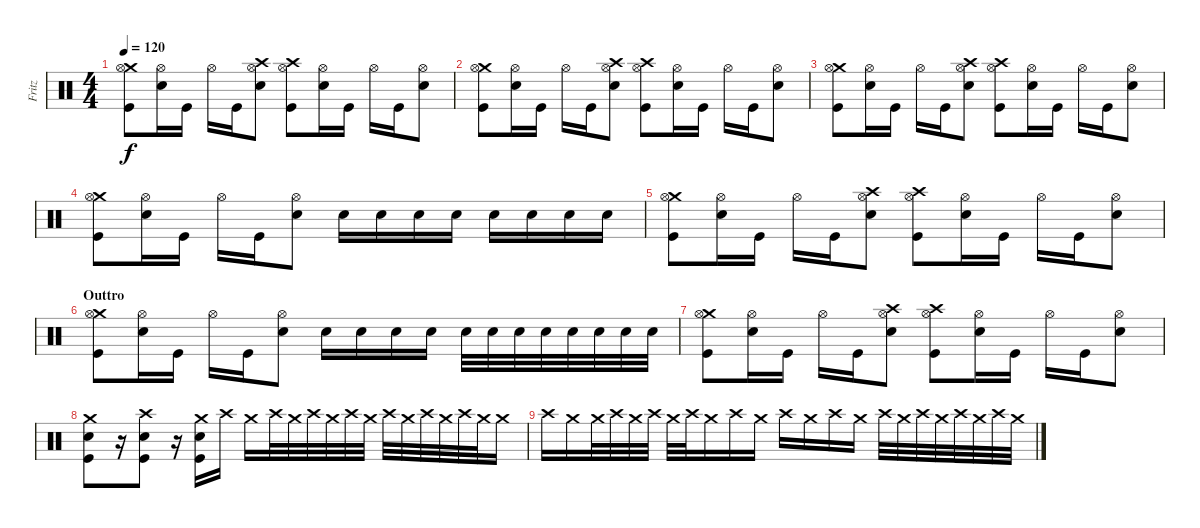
\track ("Fritz" "Fritz") {instrument percussion}
\staff {score}
\articulation defaults
\ts (4 4)
\tempo 120
\clef neutral
\ks c
("Crash medium (hit)" "Hi-Hat (open)" "Kick (hit)").8{dy f} ("Hi-Hat (open)" "Snare (hit) 2").16 "Kick (hit)".16 "Hi-Hat (open)".16 "Kick (hit)".16 ("Crash high (hit)" "Hi-Hat (open)" "Snare (hit) 2").8 ("Crash high (hit)" "Hi-Hat (open)" "Kick (hit)").8 ("Hi-Hat (open)" "Snare (hit) 2").16 "Kick (hit)".16 "Hi-Hat (open)".16 "Kick (hit)".16 ("Hi-Hat (open)" "Snare (hit) 2").8 |
("Crash medium (hit)" "Hi-Hat (open)" "Kick (hit)").8 ("Hi-Hat (open)" "Snare (hit) 2").16 "Kick (hit)".16 "Hi-Hat (open)".16 "Kick (hit)".16 ("Crash high (hit)" "Hi-Hat (open)" "Snare (hit) 2").8 ("Crash high (hit)" "Hi-Hat (open)" "Kick (hit)").8 ("Hi-Hat (open)" "Snare (hit) 2").16 "Kick (hit)".16 "Hi-Hat (open)".16 "Kick (hit)".16 ("Hi-Hat (open)" "Snare (hit) 2").8 |
("Crash medium (hit)" "Hi-Hat (open)" "Kick (hit)").8 ("Hi-Hat (open)" "Snare (hit) 2").16 "Kick (hit)".16 "Hi-Hat (open)".16 "Kick (hit)".16 ("Crash high (hit)" "Hi-Hat (open)" "Snare (hit) 2").8 ("Crash high (hit)" "Hi-Hat (open)" "Kick (hit)").8 ("Hi-Hat (open)" "Snare (hit) 2").16 "Kick (hit)".16 "Hi-Hat (open)".16 "Kick (hit)".16 ("Hi-Hat (open)" "Snare (hit) 2").8 |
("Crash medium (hit)" "Hi-Hat (open)" "Kick (hit)").8 ("Hi-Hat (open)" "Snare (hit) 2").16 "Kick (hit)".16 "Hi-Hat (open)".16 "Kick (hit)".16 ("Hi-Hat (open)" "Snare (hit) 2").8 "Snare (hit) 2".16 "Snare (hit) 2".16 "Snare (hit) 2".16 "Snare (hit) 2".16 "Snare (hit) 2".16 "Snare (hit) 2".16 "Snare (hit) 2".16 "Snare (hit) 2".16 |
("Crash medium (hit)" "Hi-Hat (open)" "Kick (hit)").8 ("Hi-Hat (open)" "Snare (hit) 2").16 "Kick (hit)".16 "Hi-Hat (open)".16 "Kick (hit)".16 ("Crash high (hit)" "Hi-Hat (open)" "Snare (hit) 2").8 ("Crash high (hit)" "Hi-Hat (open)" "Kick (hit)").8 ("Hi-Hat (open)" "Snare (hit) 2").16 "Kick (hit)".16 "Hi-Hat (open)".16 "Kick (hit)".16 ("Hi-Hat (open)" "Snare (hit) 2").8 |
\section ("" "Outtro")
("Crash medium (hit)" "Hi-Hat (open)" "Kick (hit)").8 ("Hi-Hat (open)" "Snare (hit) 2").16 "Kick (hit)".16 "Hi-Hat (open)".16 "Kick (hit)".16 ("Hi-Hat (open)" "Snare (hit) 2").8 "Snare (hit) 2".16 "Snare (hit) 2".16 "Snare (hit) 2".16 "Snare (hit) 2".16 "Snare (hit) 2".32 "Snare (hit) 2".32 "Snare (hit) 2".32 "Snare (hit) 2".32 "Snare (hit) 2".32 "Snare (hit) 2".32 "Snare (hit) 2".32 "Snare (hit) 2".32 |
("Crash medium (hit)" "Hi-Hat (open)" "Kick (hit)").8 ("Hi-Hat (open)" "Snare (hit) 2").16 "Kick (hit)".16 "Hi-Hat (open)".16 "Kick (hit)".16 ("Crash high (hit)" "Hi-Hat (open)" "Snare (hit) 2").8 ("Crash high (hit)" "Hi-Hat (open)" "Kick (hit)").8 ("Hi-Hat (open)" "Snare (hit) 2").16 "Kick (hit)".16 "Hi-Hat (open)".16 "Kick (hit)".16 ("Hi-Hat (open)" "Snare (hit) 2").8 |
("Crash medium (hit)" "Snare (hit) 2" "Kick (hit)").8 r.16 ("Crash high (hit)" "Snare (hit) 2" "Kick (hit)").8 r.16 ("Crash medium (hit)" "Snare (hit) 2" "Kick (hit)").16 "Crash high (hit)".16 "Crash medium (hit)".16 "Crash high (hit)".32 "Crash medium (hit)".32 "Crash high (hit)".32 "Crash medium (hit)".32 "Crash high (hit)".32 "Crash medium (hit)".32 "Crash high (hit)".32 "Crash medium (hit)".32 "Crash high (hit)".32 "Crash medium (hit)".32 "Crash high (hit)".32 "Crash medium (hit)".32 "Crash medium (hit)".16 |
"Crash high (hit)".16 "Crash medium (hit)".16 "Crash medium (hit)".32 "Crash high (hit)".32 "Crash medium (hit)".32 "Crash high (hit)".32 "Crash medium (hit)".32 "Crash high (hit)".32 "Crash medium (hit)".16 "Crash high (hit)".16 "Crash medium (hit)".16 "Crash high (hit)".16 "Crash medium (hit)".16 "Crash high (hit)".16 "Crash medium (hit)".16 "Crash high (hit)".32 "Crash medium (hit)".32 "Crash high (hit)".32 "Crash medium (hit)".32 "Crash high (hit)".32 "Crash medium (hit)".32 "Crash high (hit)".32 "Crash medium (hit)".32
